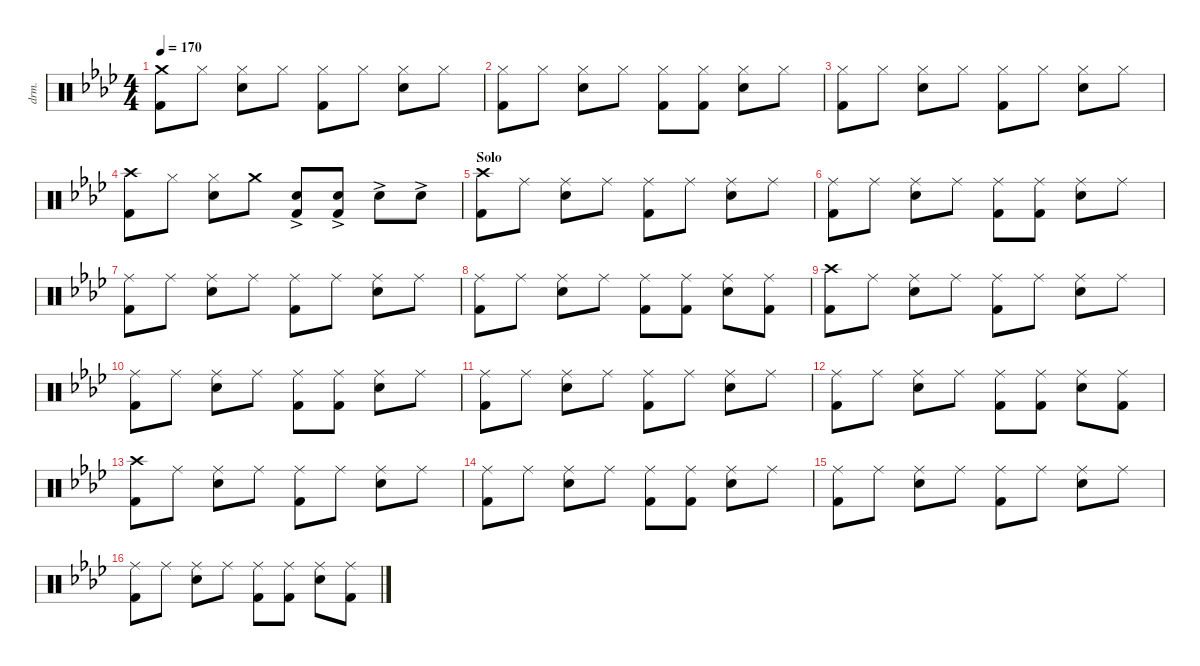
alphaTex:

\defaultSystemsLayout 4
\hideDynamics
\bracketExtendMode nobrackets
\otherSystemsTrackNameOrientation horizontal
\track ("Drumkit" "drm.") {instrument percussion}
\staff {score}
\articulation defaults
\ts (4 4)
\tempo 170
\clef neutral
\ks fminor
("Kick (hit) 2"{acc forcenatural} "Crash medium (hit)"{acc forcenatural}).8{dy mf beam Down} "Hi-Hat (closed)"{acc forcenatural}.8{beam Down} ("Hi-Hat (closed)"{acc forcenatural} "Snare (hit) 2"{acc forcenatural}).8{beam Down} "Hi-Hat (closed)"{acc forcenatural}.8{beam Down} ("Hi-Hat (closed)"{acc forcenatural} "Kick (hit) 2"{acc forcenatural}).8{beam Down} "Hi-Hat (closed)"{acc forcenatural}.8{beam Down} ("Hi-Hat (closed)"{acc forcenatural} "Snare (hit) 2"{acc forcenatural}).8{beam Down} "Hi-Hat (closed)"{acc forcenatural}.8{beam Down} |
("Hi-Hat (closed)"{acc forcenatural} "Kick (hit) 2"{acc forcenatural}).8{beam Down} "Hi-Hat (closed)"{acc forcenatural}.8{beam Down} ("Hi-Hat (closed)"{acc forcenatural} "Snare (hit) 2"{acc forcenatural}).8{beam Down} "Hi-Hat (closed)"{acc forcenatural}.8{beam Down} ("Hi-Hat (closed)"{acc forcenatural} "Kick (hit) 2"{acc forcenatural}).8{beam Down} ("Hi-Hat (closed)"{acc forcenatural} "Kick (hit) 2"{acc forcenatural}).8{beam Down} ("Hi-Hat (closed)"{acc forcenatural} "Snare (hit) 2"{acc forcenatural}).8{beam Down} "Hi-Hat (closed)"{acc forcenatural}.8{beam Down} |
("Hi-Hat (closed)"{acc forcenatural} "Kick (hit) 2"{acc forcenatural}).8{beam Down} "Hi-Hat (closed)"{acc forcenatural}.8{beam Down} ("Hi-Hat (closed)"{acc forcenatural} "Snare (hit) 2"{acc forcenatural}).8{beam Down} "Hi-Hat (closed)"{acc forcenatural}.8{beam Down} ("Hi-Hat (closed)"{acc forcenatural} "Kick (hit) 2"{acc forcenatural}).8{beam Down} "Hi-Hat (closed)"{acc forcenatural}.8{beam Down} ("Hi-Hat (closed)"{acc forcenatural} "Snare (hit) 2"{acc forcenatural}).8{beam Down} "Hi-Hat (closed)"{acc forcenatural}.8{beam Down} |
("Kick (hit) 2"{acc forcenatural} "Crash high (hit)"{acc forcenatural}).8{beam Down} "Hi-Hat (closed)"{acc forcenatural}.8{beam Down} ("Hi-Hat (closed)"{acc forcenatural} "Snare (hit) 2"{acc forcenatural}).8{beam Down} "Crash medium (hit)"{acc forcenatural}.8{beam Down} ("Kick (hit) 2"{acc forcenatural} "Snare (hit) 2"{ac acc forcenatural}).8{beam Up} ("Kick (hit) 2"{acc forcenatural} "Snare (hit) 2"{ac acc forcenatural}).8{beam Up} "Snare (hit) 2"{ac acc forcenatural}.8{beam Down} "Snare (hit) 2"{ac acc forcenatural}.8{beam Down} |
\section ("" "Solo")
("Kick (hit) 2"{acc forcenatural} "Crash high (hit)"{acc forcenatural}).8{beam Down} "Ride (middle)"{acc forcenatural}.8{beam Down} ("Ride (middle)"{acc forcenatural} "Snare (hit) 2"{acc forcenatural}).8{beam Down} "Ride (middle)"{acc forcenatural}.8{beam Down} ("Ride (middle)"{acc forcenatural} "Kick (hit) 2"{acc forcenatural}).8{beam Down} "Ride (middle)"{acc forcenatural}.8{beam Down} ("Ride (middle)"{acc forcenatural} "Snare (hit) 2"{acc forcenatural}).8{beam Down} "Ride (middle)"{acc forcenatural}.8{beam Down} |
("Ride (middle)"{acc forcenatural} "Kick (hit) 2"{acc forcenatural}).8{beam Down} "Ride (middle)"{acc forcenatural}.8{beam Down} ("Ride (middle)"{acc forcenatural} "Snare (hit) 2"{acc forcenatural}).8{beam Down} "Ride (middle)"{acc forcenatural}.8{beam Down} ("Ride (middle)"{acc forcenatural} "Kick (hit) 2"{acc forcenatural}).8{beam Down} ("Ride (middle)"{acc forcenatural} "Kick (hit) 2"{acc forcenatural}).8{beam Down} ("Ride (middle)"{acc forcenatural} "Snare (hit) 2"{acc forcenatural}).8{beam Down} "Ride (middle)"{acc forcenatural}.8{beam Down} |
("Ride (middle)"{acc forcenatural} "Kick (hit) 2"{acc forcenatural}).8{beam Down} "Ride (middle)"{acc forcenatural}.8{beam Down} ("Ride (middle)"{acc forcenatural} "Snare (hit) 2"{acc forcenatural}).8{beam Down} "Ride (middle)"{acc forcenatural}.8{beam Down} ("Ride (middle)"{acc forcenatural} "Kick (hit) 2"{acc forcenatural}).8{beam Down} "Ride (middle)"{acc forcenatural}.8{beam Down} ("Ride (middle)"{acc forcenatural} "Snare (hit) 2"{acc forcenatural}).8{beam Down} "Ride (middle)"{acc forcenatural}.8{beam Down} |
("Ride (middle)"{acc forcenatural} "Kick (hit) 2"{acc forcenatural}).8{beam Down} "Ride (middle)"{acc forcenatural}.8{beam Down} ("Ride (middle)"{acc forcenatural} "Snare (hit) 2"{acc forcenatural}).8{beam Down} "Ride (middle)"{acc forcenatural}.8{beam Down} ("Ride (middle)"{acc forcenatural} "Kick (hit) 2"{acc forcenatural}).8{beam Down} ("Ride (middle)"{acc forcenatural} "Kick (hit) 2"{acc forcenatural}).8{beam Down} ("Ride (middle)"{acc forcenatural} "Snare (hit) 2"{acc forcenatural}).8{beam Down} ("Ride (middle)"{acc forcenatural} "Kick (hit) 2"{acc forcenatural}).8{beam Down} |
("Kick (hit) 2"{acc forcenatural} "Crash high (hit)"{acc forcenatural}).8{beam Down} "Ride (middle)"{acc forcenatural}.8{beam Down} ("Ride (middle)"{acc forcenatural} "Snare (hit) 2"{acc forcenatural}).8{beam Down} "Ride (middle)"{acc forcenatural}.8{beam Down} ("Ride (middle)"{acc forcenatural} "Kick (hit) 2"{acc forcenatural}).8{beam Down} "Ride (middle)"{acc forcenatural}.8{beam Down} ("Ride (middle)"{acc forcenatural} "Snare (hit) 2"{acc forcenatural}).8{beam Down} "Ride (middle)"{acc forcenatural}.8{beam Down} |
("Ride (middle)"{acc forcenatural} "Kick (hit) 2"{acc forcenatural}).8{beam Down} "Ride (middle)"{acc forcenatural}.8{beam Down} ("Ride (middle)"{acc forcenatural} "Snare (hit) 2"{acc forcenatural}).8{beam Down} "Ride (middle)"{acc forcenatural}.8{beam Down} ("Ride (middle)"{acc forcenatural} "Kick (hit) 2"{acc forcenatural}).8{beam Down} ("Ride (middle)"{acc forcenatural} "Kick (hit) 2"{acc forcenatural}).8{beam Down} ("Ride (middle)"{acc forcenatural} "Snare (hit) 2"{acc forcenatural}).8{beam Down} "Ride (middle)"{acc forcenatural}.8{beam Down} |
("Ride (middle)"{acc forcenatural} "Kick (hit) 2"{acc forcenatural}).8{beam Down} "Ride (middle)"{acc forcenatural}.8{beam Down} ("Ride (middle)"{acc forcenatural} "Snare (hit) 2"{acc forcenatural}).8{beam Down} "Ride (middle)"{acc forcenatural}.8{beam Down} ("Ride (middle)"{acc forcenatural} "Kick (hit) 2"{acc forcenatural}).8{beam Down} "Ride (middle)"{acc forcenatural}.8{beam Down} ("Ride (middle)"{acc forcenatural} "Snare (hit) 2"{acc forcenatural}).8{beam Down} "Ride (middle)"{acc forcenatural}.8{beam Down} |
("Ride (middle)"{acc forcenatural} "Kick (hit) 2"{acc forcenatural}).8{beam Down} "Ride (middle)"{acc forcenatural}.8{beam Down} ("Ride (middle)"{acc forcenatural} "Snare (hit) 2"{acc forcenatural}).8{beam Down} "Ride (middle)"{acc forcenatural}.8{beam Down} ("Ride (middle)"{acc forcenatural} "Kick (hit) 2"{acc forcenatural}).8{beam Down} ("Ride (middle)"{acc forcenatural} "Kick (hit) 2"{acc forcenatural}).8{beam Down} ("Ride (middle)"{acc forcenatural} "Snare (hit) 2"{acc forcenatural}).8{beam Down} ("Ride (middle)"{acc forcenatural} "Kick (hit) 2"{acc forcenatural}).8{beam Down} |
("Kick (hit) 2"{acc forcenatural} "Crash high (hit)"{acc forcenatural}).8{beam Down} "Ride (middle)"{acc forcenatural}.8{beam Down} ("Ride (middle)"{acc forcenatural} "Snare (hit) 2"{acc forcenatural}).8{beam Down} "Ride (middle)"{acc forcenatural}.8{beam Down} ("Ride (middle)"{acc forcenatural} "Kick (hit) 2"{acc forcenatural}).8{beam Down} "Ride (middle)"{acc forcenatural}.8{beam Down} ("Ride (middle)"{acc forcenatural} "Snare (hit) 2"{acc forcenatural}).8{beam Down} "Ride (middle)"{acc forcenatural}.8{beam Down} |
("Ride (middle)"{acc forcenatural} "Kick (hit) 2"{acc forcenatural}).8{beam Down} "Ride (middle)"{acc forcenatural}.8{beam Down} ("Ride (middle)"{acc forcenatural} "Snare (hit) 2"{acc forcenatural}).8{beam Down} "Ride (middle)"{acc forcenatural}.8{beam Down} ("Ride (middle)"{acc forcenatural} "Kick (hit) 2"{acc forcenatural}).8{beam Down} ("Ride (middle)"{acc forcenatural} "Kick (hit) 2"{acc forcenatural}).8{beam Down} ("Ride (middle)"{acc forcenatural} "Snare (hit) 2"{acc forcenatural}).8{beam Down} "Ride (middle)"{acc forcenatural}.8{beam Down} |
("Ride (middle)"{acc forcenatural} "Kick (hit) 2"{acc forcenatural}).8{beam Down} "Ride (middle)"{acc forcenatural}.8{beam Down} ("Ride (middle)"{acc forcenatural} "Snare (hit) 2"{acc forcenatural}).8{beam Down} "Ride (middle)"{acc forcenatural}.8{beam Down} ("Ride (middle)"{acc forcenatural} "Kick (hit) 2"{acc forcenatural}).8{beam Down} "Ride (middle)"{acc forcenatural}.8{beam Down} ("Ride (middle)"{acc forcenatural} "Snare (hit) 2"{acc forcenatural}).8{beam Down} "Ride (middle)"{acc forcenatural}.8{beam Down} |
("Ride (middle)"{acc forcenatural} "Kick (hit) 2"{acc forcenatural}).8{beam Down} "Ride (middle)"{acc forcenatural}.8{beam Down} ("Ride (middle)"{acc forcenatural} "Snare (hit) 2"{acc forcenatural}).8{beam Down} "Ride (middle)"{acc forcenatural}.8{beam Down} ("Ride (middle)"{acc forcenatural} "Kick (hit) 2"{acc forcenatural}).8{beam Down} ("Ride (middle)"{acc forcenatural} "Kick (hit) 2"{acc forcenatural}).8{beam Down} ("Ride (middle)"{acc forcenatural} "Snare (hit) 2"{acc forcenatural}).8{beam Down} ("Ride (middle)"{acc forcenatural} "Kick (hit) 2"{acc forcenatural}).8{beam Down}
